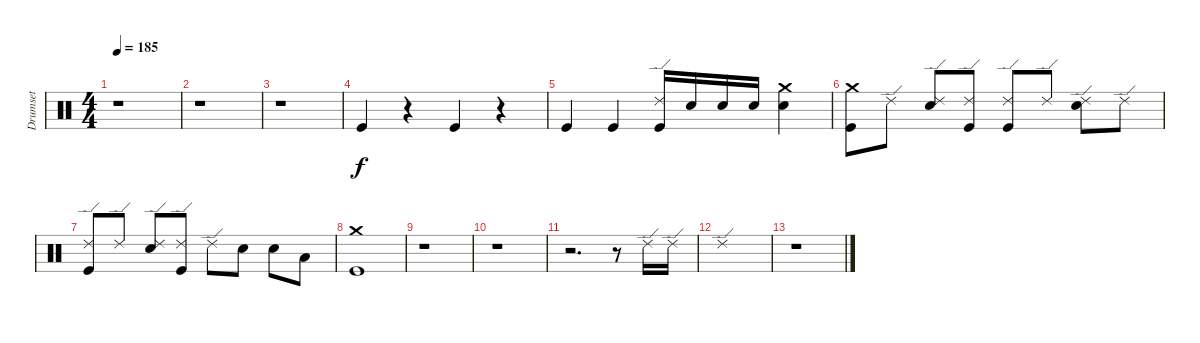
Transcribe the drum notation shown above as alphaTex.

\track ("Drumset" "Drumset") {instrument percussion}
\staff {score}
\articulation defaults
\ts (4 4)
\tempo 185
\clef neutral
\ks c
r.1{dy f} |
r.1 |
r.1 |
"Kick (hit)".4 r.4 "Kick (hit)".4 r.4 |
"Kick (hit)".4 "Kick (hit)".4 ("Ride (edge) 2" "Kick (hit)").16 "Snare (hit) 2".16 "Snare (hit) 2".16 "Snare (hit) 2".16 ("Crash medium (hit)" "Snare (hit) 2").4 |
("Crash medium (hit)" "Kick (hit)").8 "Ride (edge) 2".8 ("Ride (edge) 2" "Snare (hit) 2").8 ("Ride (edge) 2" "Kick (hit)").8 ("Ride (edge) 2" "Kick (hit)").8 "Ride (edge) 2".8 ("Ride (edge) 2" "Snare (hit) 2").8 "Ride (edge) 2".8 |
("Ride (edge) 2" "Kick (hit)").8 "Ride (edge) 2".8 ("Ride (edge) 2" "Snare (hit) 2").8 ("Ride (edge) 2" "Kick (hit)").8 "Ride (edge) 2".8 "Snare (hit) 2".8 "Snare (hit) 2".8 "Low Tom (hit)".8 |
("Crash medium (hit)" "Kick (hit)").1 |
r.1 |
r.1 |
r.2{d} r.8 "Ride (edge) 2".16 "Ride (edge) 2".16 |
"Ride (edge) 2".1 |
r.1
